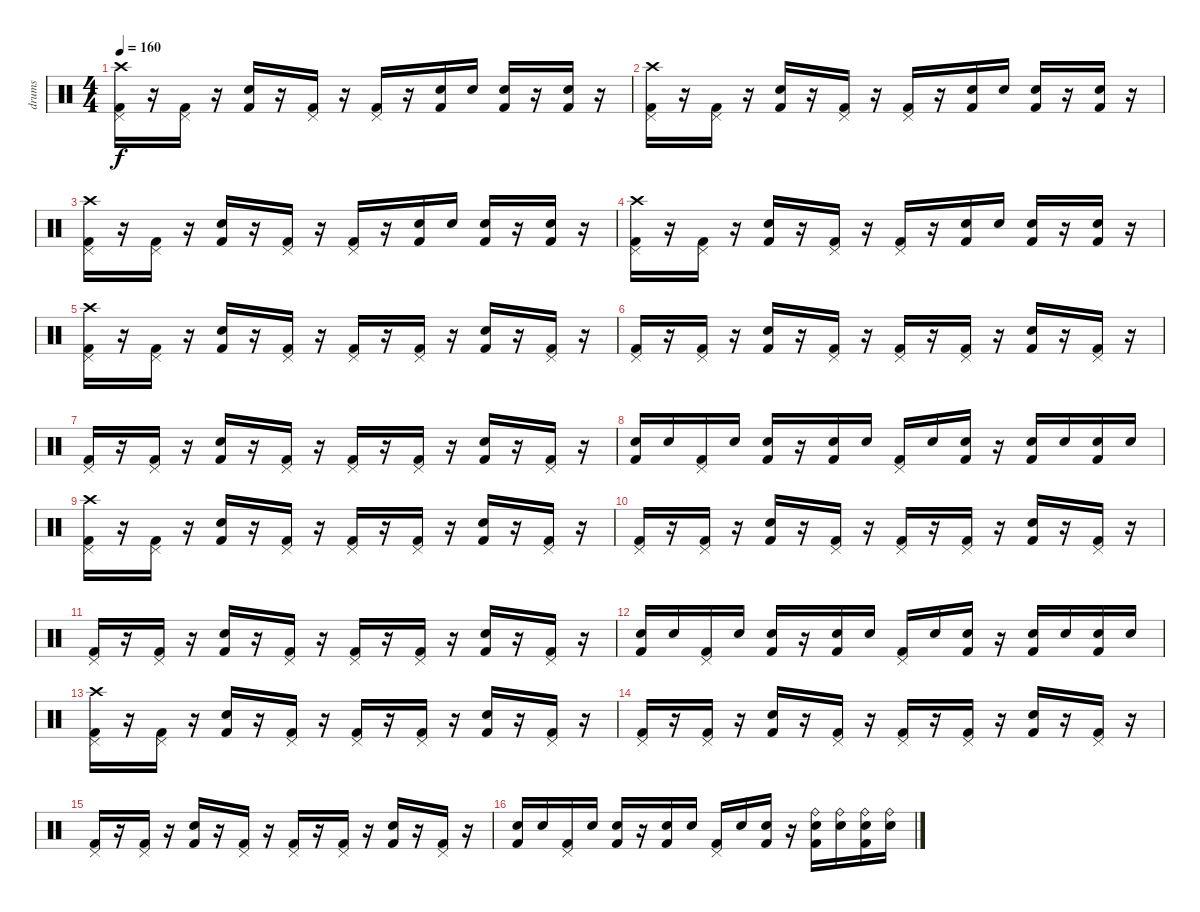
\track ("drums" "drums") {instrument percussion}
\staff {score}
\articulation defaults
\ts (4 4)
\tempo 160
\clef neutral
\ks c
("Crash high (hit)" "Pedal Hi-Hat (hit)" "Kick (hit) 2").16{dy f} r.16 ("Pedal Hi-Hat (hit)" "Kick (hit) 2").16 r.16 ("Snare (hit) 2" "Kick (hit) 2").16 r.16 ("Pedal Hi-Hat (hit)" "Kick (hit) 2").16 r.16 ("Pedal Hi-Hat (hit)" "Kick (hit) 2").16 r.16 ("Electric Snare (hit)" "Kick (hit) 2").16 "Electric Snare (hit)".16 ("Electric Snare (hit)" "Kick (hit) 2").16 r.16 ("Electric Snare (hit)" "Kick (hit) 2").16 r.16 |
("Crash high (hit)" "Pedal Hi-Hat (hit)" "Kick (hit) 2").16 r.16 ("Pedal Hi-Hat (hit)" "Kick (hit) 2").16 r.16 ("Snare (hit) 2" "Kick (hit) 2").16 r.16 ("Pedal Hi-Hat (hit)" "Kick (hit) 2").16 r.16 ("Pedal Hi-Hat (hit)" "Kick (hit) 2").16 r.16 ("Electric Snare (hit)" "Kick (hit) 2").16 "Electric Snare (hit)".16 ("Electric Snare (hit)" "Kick (hit) 2").16 r.16 ("Electric Snare (hit)" "Kick (hit) 2").16 r.16 |
("Crash high (hit)" "Pedal Hi-Hat (hit)" "Kick (hit) 2").16 r.16 ("Pedal Hi-Hat (hit)" "Kick (hit) 2").16 r.16 ("Snare (hit) 2" "Kick (hit) 2").16 r.16 ("Pedal Hi-Hat (hit)" "Kick (hit) 2").16 r.16 ("Pedal Hi-Hat (hit)" "Kick (hit) 2").16 r.16 ("Electric Snare (hit)" "Kick (hit) 2").16 "Electric Snare (hit)".16 ("Electric Snare (hit)" "Kick (hit) 2").16 r.16 ("Electric Snare (hit)" "Kick (hit) 2").16 r.16 |
("Crash high (hit)" "Pedal Hi-Hat (hit)" "Kick (hit) 2").16 r.16 ("Pedal Hi-Hat (hit)" "Kick (hit) 2").16 r.16 ("Snare (hit) 2" "Kick (hit) 2").16 r.16 ("Pedal Hi-Hat (hit)" "Kick (hit) 2").16 r.16 ("Pedal Hi-Hat (hit)" "Kick (hit) 2").16 r.16 ("Electric Snare (hit)" "Kick (hit) 2").16 "Electric Snare (hit)".16 ("Electric Snare (hit)" "Kick (hit) 2").16 r.16 ("Electric Snare (hit)" "Kick (hit) 2").16 r.16 |
("Crash high (hit)" "Pedal Hi-Hat (hit)" "Kick (hit) 2").16 r.16 ("Pedal Hi-Hat (hit)" "Kick (hit) 2").16 r.16 ("Snare (hit) 2" "Kick (hit) 2").16 r.16 ("Pedal Hi-Hat (hit)" "Kick (hit) 2").16 r.16 ("Pedal Hi-Hat (hit)" "Kick (hit) 2").16 r.16 ("Pedal Hi-Hat (hit)" "Kick (hit) 2").16 r.16 ("Snare (hit) 2" "Kick (hit) 2").16 r.16 ("Pedal Hi-Hat (hit)" "Kick (hit) 2").16 r.16 |
("Pedal Hi-Hat (hit)" "Kick (hit) 2").16 r.16 ("Pedal Hi-Hat (hit)" "Kick (hit) 2").16 r.16 ("Snare (hit) 2" "Kick (hit) 2").16 r.16 ("Pedal Hi-Hat (hit)" "Kick (hit) 2").16 r.16 ("Pedal Hi-Hat (hit)" "Kick (hit) 2").16 r.16 ("Pedal Hi-Hat (hit)" "Kick (hit) 2").16 r.16 ("Snare (hit) 2" "Kick (hit) 2").16 r.16 ("Pedal Hi-Hat (hit)" "Kick (hit) 2").16 r.16 |
("Pedal Hi-Hat (hit)" "Kick (hit) 2").16 r.16 ("Pedal Hi-Hat (hit)" "Kick (hit) 2").16 r.16 ("Snare (hit) 2" "Kick (hit) 2").16 r.16 ("Pedal Hi-Hat (hit)" "Kick (hit) 2").16 r.16 ("Pedal Hi-Hat (hit)" "Kick (hit) 2").16 r.16 ("Pedal Hi-Hat (hit)" "Kick (hit) 2").16 r.16 ("Snare (hit) 2" "Kick (hit) 2").16 r.16 ("Pedal Hi-Hat (hit)" "Kick (hit) 2").16 r.16 |
("Electric Snare (hit)" "Kick (hit) 2").16 "Electric Snare (hit)".16 ("Pedal Hi-Hat (hit)" "Kick (hit) 2").16 "Electric Snare (hit)".16 ("Electric Snare (hit)" "Kick (hit) 2").16 r.16 ("Electric Snare (hit)" "Kick (hit) 2").16 "Electric Snare (hit)".16 ("Pedal Hi-Hat (hit)" "Kick (hit) 2").16 "Electric Snare (hit)".16 ("Electric Snare (hit)" "Kick (hit) 2").16 r.16 ("Electric Snare (hit)" "Kick (hit) 2").16 "Electric Snare (hit)".16 ("Electric Snare (hit)" "Kick (hit) 2").16 "Electric Snare (hit)".16 |
("Crash high (hit)" "Pedal Hi-Hat (hit)" "Kick (hit) 2").16 r.16 ("Pedal Hi-Hat (hit)" "Kick (hit) 2").16 r.16 ("Snare (hit) 2" "Kick (hit) 2").16 r.16 ("Pedal Hi-Hat (hit)" "Kick (hit) 2").16 r.16 ("Pedal Hi-Hat (hit)" "Kick (hit) 2").16 r.16 ("Pedal Hi-Hat (hit)" "Kick (hit) 2").16 r.16 ("Snare (hit) 2" "Kick (hit) 2").16 r.16 ("Pedal Hi-Hat (hit)" "Kick (hit) 2").16 r.16 |
("Pedal Hi-Hat (hit)" "Kick (hit) 2").16 r.16 ("Pedal Hi-Hat (hit)" "Kick (hit) 2").16 r.16 ("Snare (hit) 2" "Kick (hit) 2").16 r.16 ("Pedal Hi-Hat (hit)" "Kick (hit) 2").16 r.16 ("Pedal Hi-Hat (hit)" "Kick (hit) 2").16 r.16 ("Pedal Hi-Hat (hit)" "Kick (hit) 2").16 r.16 ("Snare (hit) 2" "Kick (hit) 2").16 r.16 ("Pedal Hi-Hat (hit)" "Kick (hit) 2").16 r.16 |
("Pedal Hi-Hat (hit)" "Kick (hit) 2").16 r.16 ("Pedal Hi-Hat (hit)" "Kick (hit) 2").16 r.16 ("Snare (hit) 2" "Kick (hit) 2").16 r.16 ("Pedal Hi-Hat (hit)" "Kick (hit) 2").16 r.16 ("Pedal Hi-Hat (hit)" "Kick (hit) 2").16 r.16 ("Pedal Hi-Hat (hit)" "Kick (hit) 2").16 r.16 ("Snare (hit) 2" "Kick (hit) 2").16 r.16 ("Pedal Hi-Hat (hit)" "Kick (hit) 2").16 r.16 |
("Electric Snare (hit)" "Kick (hit) 2").16 "Electric Snare (hit)".16 ("Pedal Hi-Hat (hit)" "Kick (hit) 2").16 "Electric Snare (hit)".16 ("Electric Snare (hit)" "Kick (hit) 2").16 r.16 ("Electric Snare (hit)" "Kick (hit) 2").16 "Electric Snare (hit)".16 ("Pedal Hi-Hat (hit)" "Kick (hit) 2").16 "Electric Snare (hit)".16 ("Electric Snare (hit)" "Kick (hit) 2").16 r.16 ("Electric Snare (hit)" "Kick (hit) 2").16 "Electric Snare (hit)".16 ("Electric Snare (hit)" "Kick (hit) 2").16 "Electric Snare (hit)".16 |
("Crash high (hit)" "Pedal Hi-Hat (hit)" "Kick (hit) 2").16 r.16 ("Pedal Hi-Hat (hit)" "Kick (hit) 2").16 r.16 ("Snare (hit) 2" "Kick (hit) 2").16 r.16 ("Pedal Hi-Hat (hit)" "Kick (hit) 2").16 r.16 ("Pedal Hi-Hat (hit)" "Kick (hit) 2").16 r.16 ("Pedal Hi-Hat (hit)" "Kick (hit) 2").16 r.16 ("Snare (hit) 2" "Kick (hit) 2").16 r.16 ("Pedal Hi-Hat (hit)" "Kick (hit) 2").16 r.16 |
("Pedal Hi-Hat (hit)" "Kick (hit) 2").16 r.16 ("Pedal Hi-Hat (hit)" "Kick (hit) 2").16 r.16 ("Snare (hit) 2" "Kick (hit) 2").16 r.16 ("Pedal Hi-Hat (hit)" "Kick (hit) 2").16 r.16 ("Pedal Hi-Hat (hit)" "Kick (hit) 2").16 r.16 ("Pedal Hi-Hat (hit)" "Kick (hit) 2").16 r.16 ("Snare (hit) 2" "Kick (hit) 2").16 r.16 ("Pedal Hi-Hat (hit)" "Kick (hit) 2").16 r.16 |
("Pedal Hi-Hat (hit)" "Kick (hit) 2").16 r.16 ("Pedal Hi-Hat (hit)" "Kick (hit) 2").16 r.16 ("Snare (hit) 2" "Kick (hit) 2").16 r.16 ("Pedal Hi-Hat (hit)" "Kick (hit) 2").16 r.16 ("Pedal Hi-Hat (hit)" "Kick (hit) 2").16 r.16 ("Pedal Hi-Hat (hit)" "Kick (hit) 2").16 r.16 ("Snare (hit) 2" "Kick (hit) 2").16 r.16 ("Pedal Hi-Hat (hit)" "Kick (hit) 2").16 r.16 |
("Electric Snare (hit)" "Kick (hit) 2").16 "Electric Snare (hit)".16 ("Pedal Hi-Hat (hit)" "Kick (hit) 2").16 "Electric Snare (hit)".16 ("Electric Snare (hit)" "Kick (hit) 2").16 r.16 ("Electric Snare (hit)" "Kick (hit) 2").16 "Electric Snare (hit)".16 ("Pedal Hi-Hat (hit)" "Kick (hit) 2").16 "Electric Snare (hit)".16 ("Electric Snare (hit)" "Kick (hit) 2").16 r.16 ("Ride (bell)" "Snare (hit) 2" "Kick (hit) 2").16 ("Ride (bell)" "Snare (hit) 2").16 ("Ride (bell)" "Snare (hit) 2" "Kick (hit) 2").16 ("Ride (bell)" "Snare (hit) 2").16
